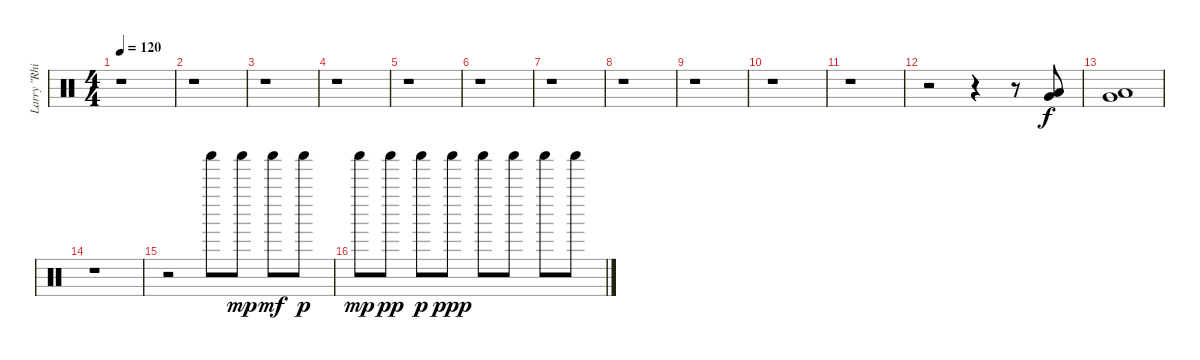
\track ("Larry \"Rhino\" Rheinhart" "Larry \"Rhi") {instrument percussion}
\staff {score}
\articulation defaults
\ts (4 4)
\tempo 120
\clef neutral
\ks c
r.1{dy f} |
r.1 |
r.1 |
r.1 |
r.1 |
r.1 |
r.1 |
r.1 |
r.1 |
r.1 |
r.1 |
r.2 r.4 r.8 ("Very Low Tom (hit)" "Low Floor Tom (hit)").8{balance 12} |
("Very Low Tom (hit)" "Low Floor Tom (hit)").1 |
r.1 |
r.2 "Shaker (hit)".8{volume 13 balance 0} "Shaker (hit)".8{dy mp balance 16} "Shaker (hit)".8{dy mf balance 0} "Shaker (hit)".8{dy p balance 16} |
"Shaker (hit)".8{dy mp balance 0} "Shaker (hit)".8{dy pp balance 16} "Shaker (hit)".8{dy p balance 0} "Shaker (hit)".8{dy ppp balance 16} "Shaker (hit)".8{balance 0} "Shaker (hit)".8{balance 0} "Shaker (hit)".8{balance 0} "Shaker (hit)".8
